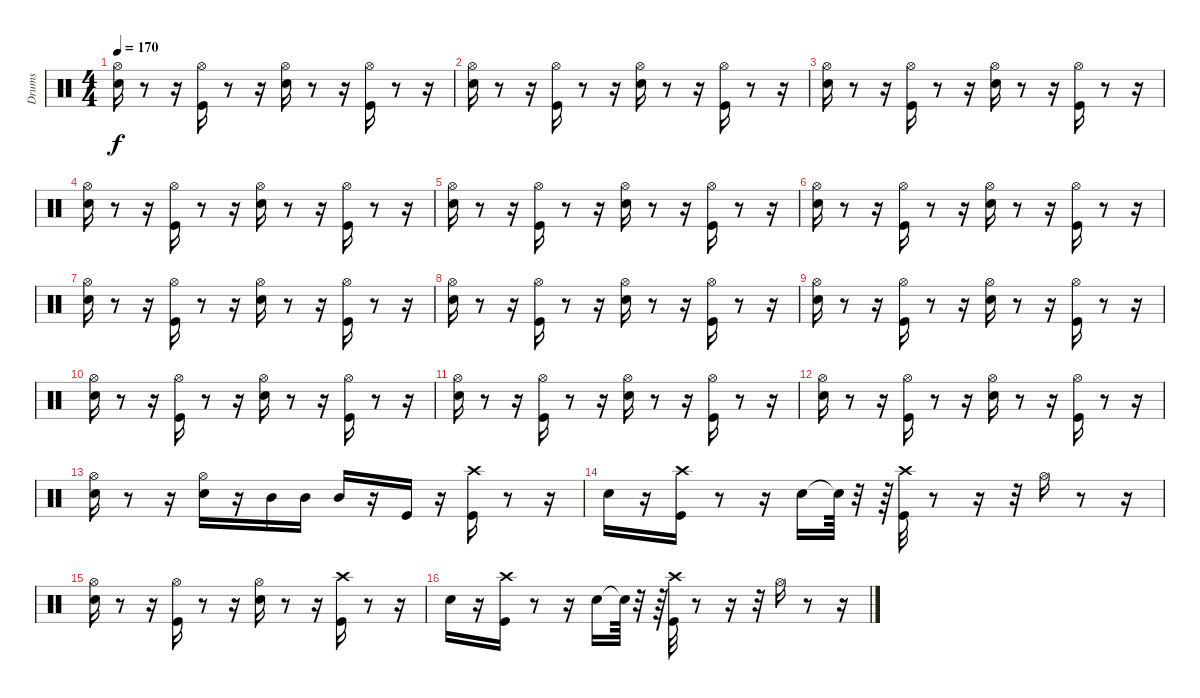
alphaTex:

\track ("Drums" "Drums") {instrument percussion}
\staff {score}
\articulation defaults
\ts (4 4)
\tempo 170
\clef neutral
\ks c
("Snare (hit) 2" "Hi-Hat (open)").16{dy f} r.8 r.16 ("Kick (hit)" "Hi-Hat (open)").16 r.8 r.16 ("Snare (hit) 2" "Hi-Hat (open)").16 r.8 r.16 ("Kick (hit)" "Hi-Hat (open)").16 r.8 r.16 |
("Hi-Hat (open)" "Snare (hit) 2").16 r.8 r.16 ("Kick (hit)" "Hi-Hat (open)").16 r.8 r.16 ("Snare (hit) 2" "Hi-Hat (open)").16 r.8 r.16 ("Kick (hit)" "Hi-Hat (open)").16 r.8 r.16 |
("Snare (hit) 2" "Hi-Hat (open)").16 r.8 r.16 ("Kick (hit)" "Hi-Hat (open)").16 r.8 r.16 ("Snare (hit) 2" "Hi-Hat (open)").16 r.8 r.16 ("Kick (hit)" "Hi-Hat (open)").16 r.8 r.16 |
("Hi-Hat (open)" "Snare (hit) 2").16 r.8 r.16 ("Kick (hit)" "Hi-Hat (open)").16 r.8 r.16 ("Snare (hit) 2" "Hi-Hat (open)").16 r.8 r.16 ("Kick (hit)" "Hi-Hat (open)").16 r.8 r.16 |
("Snare (hit) 2" "Hi-Hat (open)").16 r.8 r.16 ("Kick (hit)" "Hi-Hat (open)").16 r.8 r.16 ("Snare (hit) 2" "Hi-Hat (open)").16 r.8 r.16 ("Kick (hit)" "Hi-Hat (open)").16 r.8 r.16 |
("Hi-Hat (open)" "Snare (hit) 2").16 r.8 r.16 ("Kick (hit)" "Hi-Hat (open)").16 r.8 r.16 ("Snare (hit) 2" "Hi-Hat (open)").16 r.8 r.16 ("Kick (hit)" "Hi-Hat (open)").16 r.8 r.16 |
("Snare (hit) 2" "Hi-Hat (open)").16 r.8 r.16 ("Kick (hit)" "Hi-Hat (open)").16 r.8 r.16 ("Snare (hit) 2" "Hi-Hat (open)").16 r.8 r.16 ("Kick (hit)" "Hi-Hat (open)").16 r.8 r.16 |
("Hi-Hat (open)" "Snare (hit) 2").16 r.8 r.16 ("Kick (hit)" "Hi-Hat (open)").16 r.8 r.16 ("Snare (hit) 2" "Hi-Hat (open)").16 r.8 r.16 ("Kick (hit)" "Hi-Hat (open)").16 r.8 r.16 |
("Snare (hit) 2" "Hi-Hat (open)").16 r.8 r.16 ("Kick (hit)" "Hi-Hat (open)").16 r.8 r.16 ("Snare (hit) 2" "Hi-Hat (open)").16 r.8 r.16 ("Kick (hit)" "Hi-Hat (open)").16 r.8 r.16 |
("Hi-Hat (open)" "Snare (hit) 2").16 r.8 r.16 ("Kick (hit)" "Hi-Hat (open)").16 r.8 r.16 ("Snare (hit) 2" "Hi-Hat (open)").16 r.8 r.16 ("Kick (hit)" "Hi-Hat (open)").16 r.8 r.16 |
("Snare (hit) 2" "Hi-Hat (open)").16 r.8 r.16 ("Kick (hit)" "Hi-Hat (open)").16 r.8 r.16 ("Snare (hit) 2" "Hi-Hat (open)").16 r.8 r.16 ("Kick (hit)" "Hi-Hat (open)").16 r.8 r.16 |
("Hi-Hat (open)" "Snare (hit) 2").16 r.8 r.16 ("Kick (hit)" "Hi-Hat (open)").16 r.8 r.16 ("Snare (hit) 2" "Hi-Hat (open)").16 r.8 r.16 ("Kick (hit)" "Hi-Hat (open)").16 r.8 r.16 |
("Snare (hit) 2" "Hi-Hat (open)").16 r.8 r.16 ("Hi-Hat (open)" "Snare (hit) 2").16 r.16 "Mid Tom (hit)".16 "Mid Tom (hit)".16 "Mid Tom (hit)".16 r.16 "Kick (hit)".16 r.16 ("Kick (hit)" "Crash high (hit)").16 r.8 r.16 |
"Snare (hit) 2".16 r.16 ("Kick (hit)" "Crash high (hit)").16 r.8 r.16 "Snare (hit) 2".16 "Snare (hit)"{t}.64 r.32 r.64 ("Kick (hit)" "Crash high (hit)").32 r.8 r.16 r.32 "Hi-Hat (open)".16 r.8 r.16 |
("Hi-Hat (open)" "Snare (hit) 2").16 r.8 r.16 ("Hi-Hat (open)" "Kick (hit)").16 r.8 r.16 ("Hi-Hat (open)" "Snare (hit) 2").16 r.8 r.16 ("Kick (hit)" "Crash high (hit)").16 r.8 r.16 |
"Snare (hit) 2".16 r.16 ("Kick (hit)" "Crash high (hit)").16 r.8 r.16 "Snare (hit) 2".16 "Snare (hit)"{t}.64 r.32 r.64 ("Kick (hit)" "Crash high (hit)").32 r.8 r.16 r.32 "Hi-Hat (open)".16 r.8 r.16
